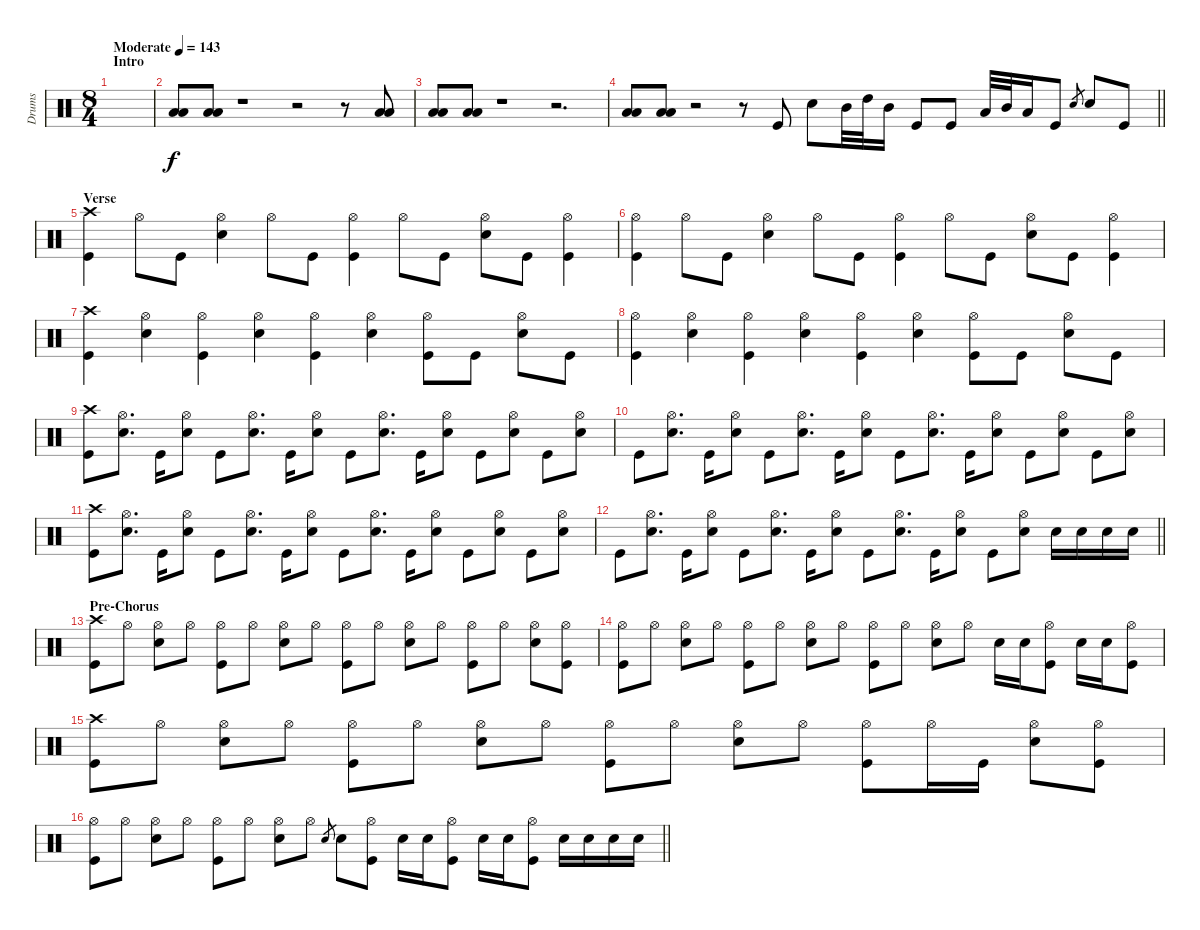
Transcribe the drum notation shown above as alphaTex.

\track ("Drums" "Drums") {instrument percussion}
\staff {score}
\articulation defaults
\ts (8 4)
\section ("" "Intro")
\tempo (143 "Moderate")
\clef neutral
\ks c
|
("Low Floor Tom (hit)" "Low Floor Tom (hit)").8 ("Low Floor Tom (hit)" "Low Floor Tom (hit)").8 r.1 r.2 r.8 ("Low Floor Tom (hit)" "Low Floor Tom (hit)").8 |
("Low Floor Tom (hit)" "Low Floor Tom (hit)").8 ("Low Floor Tom (hit)" "Low Floor Tom (hit)").8 r.1 r.2{d} |
\barLineRight lightlight
("Low Floor Tom (hit)" "Low Floor Tom (hit)").8 ("Low Floor Tom (hit)" "Low Floor Tom (hit)").8 r.2 r.8 "Kick (hit)".8 "Snare (hit) 2".8 "Mid Tom (hit)".32 "High Tom (hit)".32 "Mid Tom (hit)".16 "Kick (hit)".8 "Kick (hit)".8 "Low Tom (hit)".32 "Mid Tom (hit)".32 "Low Tom (hit)".16 "Kick (hit)".8 "Snare (hit) 2".8{gr} "Snare (hit) 2".8 "Kick (hit)".8 |
\section ("" "Verse")
("Crash high (hit)" "Kick (hit)").4 "Hi-Hat (open)".8 "Kick (hit)".8 ("Hi-Hat (open)" "Snare (hit) 2").4 "Hi-Hat (open)".8 "Kick (hit)".8 ("Hi-Hat (open)" "Kick (hit)").4 "Hi-Hat (open)".8 "Kick (hit)".8 ("Hi-Hat (open)" "Snare (hit) 2").8 "Kick (hit)".8 ("Hi-Hat (open)" "Kick (hit)").4 |
("Hi-Hat (open)" "Kick (hit)").4 "Hi-Hat (open)".8 "Kick (hit)".8 ("Hi-Hat (open)" "Snare (hit) 2").4 "Hi-Hat (open)".8 "Kick (hit)".8 ("Hi-Hat (open)" "Kick (hit)").4 "Hi-Hat (open)".8 "Kick (hit)".8 ("Hi-Hat (open)" "Snare (hit) 2").8 "Kick (hit)".8 ("Hi-Hat (open)" "Kick (hit)").4 |
("Crash high (hit)" "Kick (hit)").4 ("Hi-Hat (open)" "Snare (hit) 2").4 ("Hi-Hat (open)" "Kick (hit)").4 ("Hi-Hat (open)" "Snare (hit) 2").4 ("Hi-Hat (open)" "Kick (hit)").4 ("Hi-Hat (open)" "Snare (hit) 2").4 ("Hi-Hat (open)" "Kick (hit)").8 "Kick (hit)".8 ("Hi-Hat (open)" "Snare (hit) 2").8 "Kick (hit)".8 |
("Hi-Hat (open)" "Kick (hit)").4 ("Hi-Hat (open)" "Snare (hit) 2").4 ("Hi-Hat (open)" "Kick (hit)").4 ("Hi-Hat (open)" "Snare (hit) 2").4 ("Hi-Hat (open)" "Kick (hit)").4 ("Hi-Hat (open)" "Snare (hit) 2").4 ("Hi-Hat (open)" "Kick (hit)").8 "Kick (hit)".8 ("Hi-Hat (open)" "Snare (hit) 2").8 "Kick (hit)".8 |
("Crash high (hit)" "Kick (hit)").8 ("Hi-Hat (open)" "Snare (hit) 2").8{d} "Kick (hit)".16 ("Hi-Hat (open)" "Snare (hit) 2").8 "Kick (hit)".8 ("Hi-Hat (open)" "Snare (hit) 2").8{d} "Kick (hit)".16 ("Hi-Hat (open)" "Snare (hit) 2").8 "Kick (hit)".8 ("Hi-Hat (open)" "Snare (hit) 2").8{d} "Kick (hit)".16 ("Hi-Hat (open)" "Snare (hit) 2").8 "Kick (hit)".8 ("Hi-Hat (open)" "Snare (hit) 2").8 "Kick (hit)".8 ("Hi-Hat (open)" "Snare (hit) 2").8 |
"Kick (hit)".8 ("Hi-Hat (open)" "Snare (hit) 2").8{d} "Kick (hit)".16 ("Hi-Hat (open)" "Snare (hit) 2").8 "Kick (hit)".8 ("Hi-Hat (open)" "Snare (hit) 2").8{d} "Kick (hit)".16 ("Hi-Hat (open)" "Snare (hit) 2").8 "Kick (hit)".8 ("Hi-Hat (open)" "Snare (hit) 2").8{d} "Kick (hit)".16 ("Hi-Hat (open)" "Snare (hit) 2").8 "Kick (hit)".8 ("Hi-Hat (open)" "Snare (hit) 2").8 "Kick (hit)".8 ("Hi-Hat (open)" "Snare (hit) 2").8 |
("Crash high (hit)" "Kick (hit)").8 ("Hi-Hat (open)" "Snare (hit) 2").8{d} "Kick (hit)".16 ("Hi-Hat (open)" "Snare (hit) 2").8 "Kick (hit)".8 ("Hi-Hat (open)" "Snare (hit) 2").8{d} "Kick (hit)".16 ("Hi-Hat (open)" "Snare (hit) 2").8 "Kick (hit)".8 ("Hi-Hat (open)" "Snare (hit) 2").8{d} "Kick (hit)".16 ("Hi-Hat (open)" "Snare (hit) 2").8 "Kick (hit)".8 ("Hi-Hat (open)" "Snare (hit) 2").8 "Kick (hit)".8 ("Hi-Hat (open)" "Snare (hit) 2").8 |
\barLineRight lightlight "Kick (hit)".8
("Hi-Hat (open)" "Snare (hit) 2").8{d} "Kick (hit)".16 ("Hi-Hat (open)" "Snare (hit) 2").8 "Kick (hit)".8 ("Hi-Hat (open)" "Snare (hit) 2").8{d} "Kick (hit)".16 ("Hi-Hat (open)" "Snare (hit) 2").8 "Kick (hit)".8 ("Hi-Hat (open)" "Snare (hit) 2").8{d} "Kick (hit)".16 ("Hi-Hat (open)" "Snare (hit) 2").8 "Kick (hit)".8 ("Hi-Hat (open)" "Snare (hit) 2").8 "Snare (hit) 2".16 "Snare (hit) 2".16 "Snare (hit) 2".16 "Snare (hit) 2".16 |
\section ("" "Pre-Chorus")
("Crash high (hit)" "Kick (hit)").8 "Hi-Hat (open)".8 ("Hi-Hat (open)" "Snare (hit) 2").8 "Hi-Hat (open)".8 ("Hi-Hat (open)" "Kick (hit)").8 "Hi-Hat (open)".8 ("Hi-Hat (open)" "Snare (hit) 2").8 "Hi-Hat (open)".8 ("Hi-Hat (open)" "Kick (hit)").8 "Hi-Hat (open)".8 ("Hi-Hat (open)" "Snare (hit) 2").8 "Hi-Hat (open)".8 ("Hi-Hat (open)" "Kick (hit)").8 "Hi-Hat (open)".8 ("Hi-Hat (open)" "Snare (hit) 2").8 ("Hi-Hat (open)" "Kick (hit)").8 |
("Hi-Hat (open)" "Kick (hit)").8 "Hi-Hat (open)".8 ("Hi-Hat (open)" "Snare (hit) 2").8 "Hi-Hat (open)".8 ("Hi-Hat (open)" "Kick (hit)").8 "Hi-Hat (open)".8 ("Hi-Hat (open)" "Snare (hit) 2").8 "Hi-Hat (open)".8 ("Hi-Hat (open)" "Kick (hit)").8 "Hi-Hat (open)".8 ("Hi-Hat (open)" "Snare (hit) 2").8 "Hi-Hat (open)".8 "Snare (hit) 2".16 "Snare (hit) 2".16 ("Hi-Hat (open)" "Kick (hit)").8 "Snare (hit) 2".16 "Snare (hit) 2".16 ("Hi-Hat (open)" "Kick (hit)").8 |
("Crash high (hit)" "Kick (hit)").8 "Hi-Hat (open)".8 ("Hi-Hat (open)" "Snare (hit) 2").8 "Hi-Hat (open)".8 ("Hi-Hat (open)" "Kick (hit)").8 "Hi-Hat (open)".8 ("Hi-Hat (open)" "Snare (hit) 2").8 "Hi-Hat (open)".8 ("Hi-Hat (open)" "Kick (hit)").8 "Hi-Hat (open)".8 ("Hi-Hat (open)" "Snare (hit) 2").8 "Hi-Hat (open)".8 ("Hi-Hat (open)" "Kick (hit)").8 "Hi-Hat (open)".16 "Kick (hit)".16 ("Hi-Hat (open)" "Snare (hit) 2").8 ("Hi-Hat (open)" "Kick (hit)").8 |
\barLineRight lightlight
("Hi-Hat (open)" "Kick (hit)").8 "Hi-Hat (open)".8 ("Hi-Hat (open)" "Snare (hit) 2").8 "Hi-Hat (open)".8 ("Hi-Hat (open)" "Kick (hit)").8 "Hi-Hat (open)".8 ("Hi-Hat (open)" "Snare (hit) 2").8 "Hi-Hat (open)".8 "Snare (hit) 2".8{gr} "Snare (hit) 2".8 ("Hi-Hat (open)" "Kick (hit)").8 "Snare (hit) 2".16 "Snare (hit) 2".16 ("Hi-Hat (open)" "Kick (hit)").8 "Snare (hit) 2".16 "Snare (hit) 2".16 ("Hi-Hat (open)" "Kick (hit)").8 "Snare (hit) 2".16 "Snare (hit) 2".16 "Snare (hit) 2".16 "Snare (hit) 2".16
